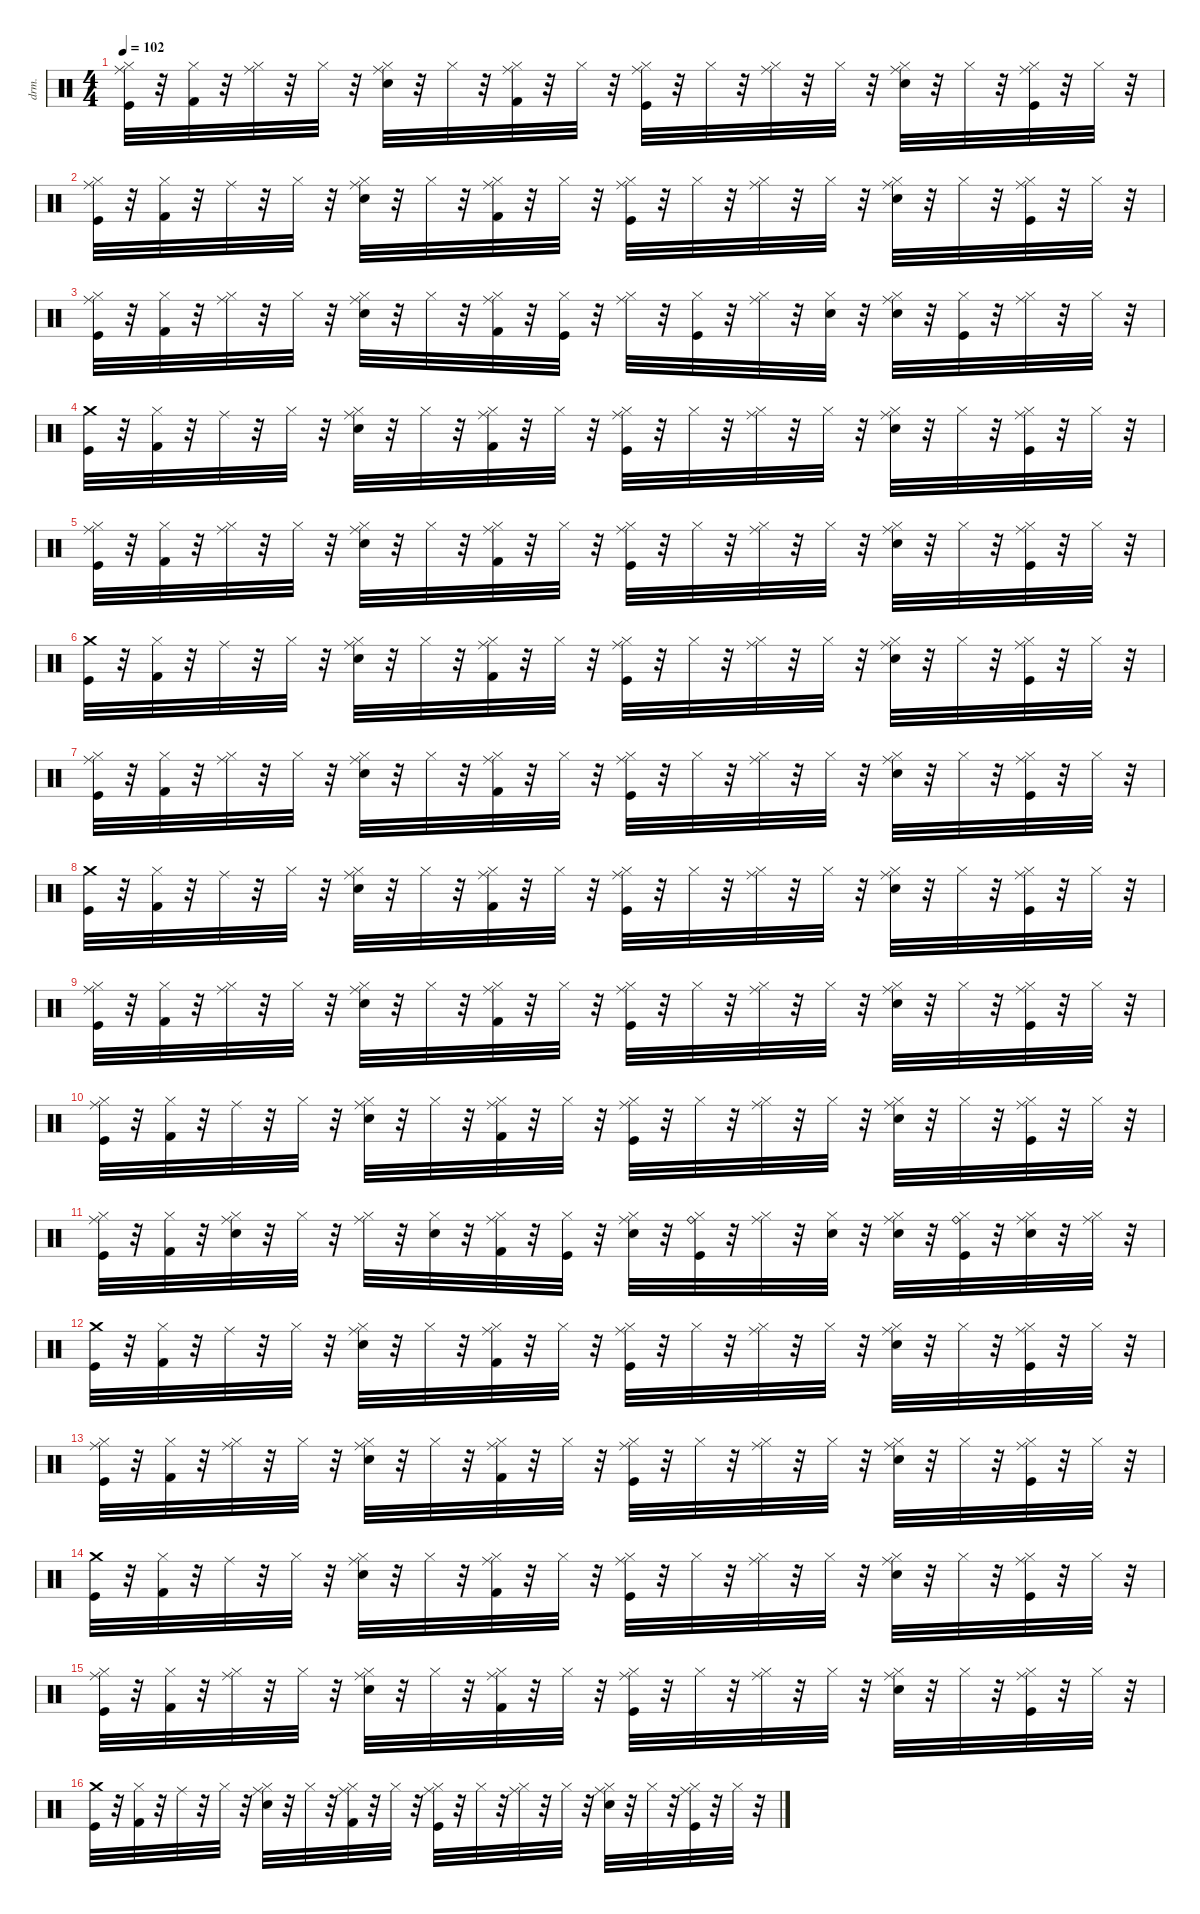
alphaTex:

\defaultSystemsLayout 4
\hideDynamics
\bracketExtendMode nobrackets
\otherSystemsTrackNameOrientation horizontal
\track ("Nick Mason / Gary Wallis" "drm.") {instrument percussion}
\staff {score}
\articulation defaults
\ts (4 4)
\tempo 102
\clef neutral
\ks c
("Kick (hit)" "Hi-Hat (closed)" "Ride (middle)").32{dy fff beam Down} r.32{beam Down} ("Hi-Hat (closed)" "Kick (hit) 2").32{dy pp beam Down} r.32{beam Down} ("Hi-Hat (closed)" "Ride (middle)").32{dy ppp beam Down} r.32{beam Down} "Hi-Hat (closed)".32{dy p beam Down} r.32{beam Down} ("Snare (hit) 2" "Hi-Hat (closed)" "Ride (middle)").32{dy ff beam Down} r.32{beam Down} "Hi-Hat (closed)".32{dy ppp beam Down} r.32{beam Down} ("Kick (hit) 2" "Hi-Hat (closed)" "Ride (middle)").32{dy f beam Down} r.32{beam Down} "Hi-Hat (closed)".32{dy ppp beam Down} r.32{beam Down} ("Kick (hit)" "Hi-Hat (closed)" "Ride (middle)").32{dy fff beam Down} r.32{beam Down} "Hi-Hat (closed)".32{dy pp beam Down} r.32{beam Down} ("Hi-Hat (closed)" "Ride (middle)").32{dy ppp beam Down} r.32{beam Down} "Hi-Hat (closed)".32{dy p beam Down} r.32{beam Down} ("Snare (hit) 2" "Hi-Hat (closed)" "Ride (middle)").32{dy ff beam Down} r.32{beam Down} "Hi-Hat (closed)".32{dy ppp beam Down} r.32{beam Down} ("Kick (hit)" "Hi-Hat (closed)" "Ride (middle)").32{dy f beam Down} r.32{beam Down} "Hi-Hat (closed)".32{dy p beam Down} r.32{beam Down} |
("Kick (hit)" "Hi-Hat (closed)" "Ride (middle)").32{dy fff beam Down} r.32{beam Down} ("Hi-Hat (closed)" "Kick (hit) 2").32{dy mp beam Down} r.32{beam Down} "Ride (middle)".32{dy p beam Down} r.32{beam Down} "Hi-Hat (closed)".32{dy pp beam Down} r.32{beam Down} ("Snare (hit) 2" "Hi-Hat (closed)" "Ride (middle)").32{dy ff beam Down} r.32{beam Down} "Hi-Hat (closed)".32{dy pp beam Down} r.32{beam Down} ("Kick (hit) 2" "Hi-Hat (closed)" "Ride (middle)").32{dy f beam Down} r.32{beam Down} "Hi-Hat (closed)".32{dy ppp beam Down} r.32{beam Down} ("Kick (hit)" "Hi-Hat (closed)" "Ride (middle)").32{dy fff beam Down} r.32{beam Down} "Hi-Hat (closed)".32{dy ppp beam Down} r.32{beam Down} ("Hi-Hat (closed)" "Ride (middle)").32{dy pp beam Down} r.32{beam Down} "Hi-Hat (closed)".32{beam Down} r.32{beam Down} ("Snare (hit) 2" "Hi-Hat (closed)" "Ride (middle)").32{dy ff beam Down} r.32{beam Down} "Hi-Hat (closed)".32{dy ppp beam Down} r.32{beam Down} ("Kick (hit)" "Hi-Hat (closed)" "Ride (middle)").32{dy f beam Down} r.32{beam Down} "Hi-Hat (closed)".32{dy mp beam Down} r.32{beam Down} |
("Kick (hit)" "Hi-Hat (closed)" "Ride (middle)").32{dy fff beam Down} r.32{beam Down} ("Hi-Hat (closed)" "Kick (hit) 2").32{dy pp beam Down} r.32{beam Down} ("Hi-Hat (closed)" "Ride (middle)").32{dy ppp beam Down} r.32{beam Down} "Hi-Hat (closed)".32{dy p beam Down} r.32{beam Down} ("Snare (hit) 2" "Hi-Hat (closed)" "Ride (middle)").32{dy ff beam Down} r.32{beam Down} "Hi-Hat (closed)".32{dy ppp beam Down} r.32{beam Down} ("Kick (hit) 2" "Hi-Hat (closed)" "Ride (middle)").32{dy f beam Down} r.32{beam Down} ("Kick (hit)" "Hi-Hat (closed)").32{dy fff beam Down} r.32{beam Down} ("Hi-Hat (closed)" "Ride (middle)").32{dy mf beam Down} r.32{beam Down} ("Kick (hit)" "Hi-Hat (closed)").32{beam Down} r.32{beam Down} ("Hi-Hat (closed)" "Ride (middle)").32{dy ppp beam Down} r.32{beam Down} ("Snare (hit) 2" "Hi-Hat (closed)").32{dy f beam Down} r.32{beam Down} ("Snare (hit) 2" "Hi-Hat (closed)" "Ride (middle)").32{dy ff beam Down} r.32{beam Down} ("Kick (hit)" "Hi-Hat (closed)").32{dy mf beam Down} r.32{beam Down} ("Hi-Hat (closed)" "Ride (middle)").32{dy pp beam Down} r.32{beam Down} "Hi-Hat (closed)".32{dy p beam Down} r.32{beam Down} |
("Kick (hit)" "Crash medium (hit)").32{dy fff beam Down} r.32{beam Down} ("Hi-Hat (closed)" "Kick (hit) 2").32{dy mp beam Down} r.32{beam Down} "Ride (middle)".32{dy p beam Down} r.32{beam Down} "Hi-Hat (closed)".32{dy pp beam Down} r.32{beam Down} ("Snare (hit) 2" "Hi-Hat (closed)" "Ride (middle)").32{dy ff beam Down} r.32{beam Down} "Hi-Hat (closed)".32{dy pp beam Down} r.32{beam Down} ("Kick (hit) 2" "Hi-Hat (closed)" "Ride (middle)").32{dy f beam Down} r.32{beam Down} "Hi-Hat (closed)".32{dy ppp beam Down} r.32{beam Down} ("Kick (hit)" "Hi-Hat (closed)" "Ride (middle)").32{dy fff beam Down} r.32{beam Down} "Hi-Hat (closed)".32{dy ppp beam Down} r.32{beam Down} ("Hi-Hat (closed)" "Ride (middle)").32{dy pp beam Down} r.32{beam Down} "Hi-Hat (closed)".32{beam Down} r.32{beam Down} ("Snare (hit) 2" "Hi-Hat (closed)" "Ride (middle)").32{dy ff beam Down} r.32{beam Down} "Hi-Hat (closed)".32{dy ppp beam Down} r.32{beam Down} ("Kick (hit)" "Hi-Hat (closed)" "Ride (middle)").32{dy f beam Down} r.32{beam Down} "Hi-Hat (closed)".32{dy mp beam Down} r.32{beam Down} |
("Kick (hit)" "Hi-Hat (closed)" "Ride (middle)").32{dy fff beam Down} r.32{beam Down} ("Hi-Hat (closed)" "Kick (hit) 2").32{dy pp beam Down} r.32{beam Down} ("Hi-Hat (closed)" "Ride (middle)").32{dy ppp beam Down} r.32{beam Down} "Hi-Hat (closed)".32{dy p beam Down} r.32{beam Down} ("Snare (hit) 2" "Hi-Hat (closed)" "Ride (middle)").32{dy ff beam Down} r.32{beam Down} "Hi-Hat (closed)".32{dy ppp beam Down} r.32{beam Down} ("Kick (hit) 2" "Hi-Hat (closed)" "Ride (middle)").32{dy f beam Down} r.32{beam Down} "Hi-Hat (closed)".32{dy ppp beam Down} r.32{beam Down} ("Kick (hit)" "Hi-Hat (closed)" "Ride (middle)").32{dy fff beam Down} r.32{beam Down} "Hi-Hat (closed)".32{dy pp beam Down} r.32{beam Down} ("Hi-Hat (closed)" "Ride (middle)").32{dy ppp beam Down} r.32{beam Down} "Hi-Hat (closed)".32{dy p beam Down} r.32{beam Down} ("Snare (hit) 2" "Hi-Hat (closed)" "Ride (middle)").32{dy ff beam Down} r.32{beam Down} "Hi-Hat (closed)".32{dy ppp beam Down} r.32{beam Down} ("Kick (hit)" "Hi-Hat (closed)" "Ride (middle)").32{dy f beam Down} r.32{beam Down} "Hi-Hat (closed)".32{dy p beam Down} r.32{beam Down} |
("Kick (hit)" "Crash medium (hit)").32{dy fff beam Down} r.32{beam Down} ("Hi-Hat (closed)" "Kick (hit) 2").32{dy mp beam Down} r.32{beam Down} "Ride (middle)".32{dy p beam Down} r.32{beam Down} "Hi-Hat (closed)".32{dy pp beam Down} r.32{beam Down} ("Snare (hit) 2" "Hi-Hat (closed)" "Ride (middle)").32{dy ff beam Down} r.32{beam Down} "Hi-Hat (closed)".32{dy pp beam Down} r.32{beam Down} ("Kick (hit) 2" "Hi-Hat (closed)" "Ride (middle)").32{dy f beam Down} r.32{beam Down} "Hi-Hat (closed)".32{dy ppp beam Down} r.32{beam Down} ("Kick (hit)" "Hi-Hat (closed)" "Ride (middle)").32{dy fff beam Down} r.32{beam Down} "Hi-Hat (closed)".32{dy ppp beam Down} r.32{beam Down} ("Hi-Hat (closed)" "Ride (middle)").32{dy pp beam Down} r.32{beam Down} "Hi-Hat (closed)".32{beam Down} r.32{beam Down} ("Snare (hit) 2" "Hi-Hat (closed)" "Ride (middle)").32{dy ff beam Down} r.32{beam Down} "Hi-Hat (closed)".32{dy ppp beam Down} r.32{beam Down} ("Kick (hit)" "Hi-Hat (closed)" "Ride (middle)").32{dy f beam Down} r.32{beam Down} "Hi-Hat (closed)".32{dy mp beam Down} r.32{beam Down} |
("Kick (hit)" "Hi-Hat (closed)" "Ride (middle)").32{dy fff beam Down} r.32{beam Down} ("Hi-Hat (closed)" "Kick (hit) 2").32{dy pp beam Down} r.32{beam Down} ("Hi-Hat (closed)" "Ride (middle)").32{dy ppp beam Down} r.32{beam Down} "Hi-Hat (closed)".32{dy p beam Down} r.32{beam Down} ("Snare (hit) 2" "Hi-Hat (closed)" "Ride (middle)").32{dy ff beam Down} r.32{beam Down} "Hi-Hat (closed)".32{dy ppp beam Down} r.32{beam Down} ("Kick (hit) 2" "Hi-Hat (closed)" "Ride (middle)").32{dy f beam Down} r.32{beam Down} "Hi-Hat (closed)".32{dy ppp beam Down} r.32{beam Down} ("Kick (hit)" "Hi-Hat (closed)" "Ride (middle)").32{dy fff beam Down} r.32{beam Down} "Hi-Hat (closed)".32{dy pp beam Down} r.32{beam Down} ("Hi-Hat (closed)" "Ride (middle)").32{dy ppp beam Down} r.32{beam Down} "Hi-Hat (closed)".32{dy p beam Down} r.32{beam Down} ("Snare (hit) 2" "Hi-Hat (closed)" "Ride (middle)").32{dy ff beam Down} r.32{beam Down} "Hi-Hat (closed)".32{dy ppp beam Down} r.32{beam Down} ("Kick (hit)" "Hi-Hat (closed)" "Ride (middle)").32{dy f beam Down} r.32{beam Down} "Hi-Hat (closed)".32{dy p beam Down} r.32{beam Down} |
("Kick (hit)" "Crash medium (hit)").32{dy fff beam Down} r.32{beam Down} ("Hi-Hat (closed)" "Kick (hit) 2").32{dy mp beam Down} r.32{beam Down} "Ride (middle)".32{beam Down} r.32{beam Down} "Hi-Hat (closed)".32{dy pp beam Down} r.32{beam Down} ("Snare (hit) 2" "Hi-Hat (closed)" "Ride (middle)").32{dy ff beam Down} r.32{beam Down} "Hi-Hat (closed)".32{dy pp beam Down} r.32{beam Down} ("Kick (hit) 2" "Hi-Hat (closed)" "Ride (middle)").32{dy f beam Down} r.32{beam Down} "Hi-Hat (closed)".32{dy ppp beam Down} r.32{beam Down} ("Kick (hit)" "Hi-Hat (closed)" "Ride (middle)").32{dy fff beam Down} r.32{beam Down} "Hi-Hat (closed)".32{dy ppp beam Down} r.32{beam Down} ("Hi-Hat (closed)" "Ride (middle)").32{dy pp beam Down} r.32{beam Down} "Hi-Hat (closed)".32{beam Down} r.32{beam Down} ("Snare (hit) 2" "Hi-Hat (closed)" "Ride (middle)").32{dy ff beam Down} r.32{beam Down} "Hi-Hat (closed)".32{dy ppp beam Down} r.32{beam Down} ("Kick (hit)" "Hi-Hat (closed)" "Ride (middle)").32{dy f beam Down} r.32{beam Down} "Hi-Hat (closed)".32{dy mp beam Down} r.32{beam Down} |
("Kick (hit)" "Hi-Hat (closed)" "Ride (middle)").32{dy fff beam Down} r.32{beam Down} ("Hi-Hat (closed)" "Kick (hit) 2").32{dy pp beam Down} r.32{beam Down} ("Hi-Hat (closed)" "Ride (middle)").32{dy ppp beam Down} r.32{beam Down} "Hi-Hat (closed)".32{dy p beam Down} r.32{beam Down} ("Snare (hit) 2" "Hi-Hat (closed)" "Ride (middle)").32{dy ff beam Down} r.32{beam Down} "Hi-Hat (closed)".32{dy ppp beam Down} r.32{beam Down} ("Kick (hit) 2" "Hi-Hat (closed)" "Ride (middle)").32{dy f beam Down} r.32{beam Down} "Hi-Hat (closed)".32{dy ppp beam Down} r.32{beam Down} ("Kick (hit)" "Hi-Hat (closed)" "Ride (middle)").32{dy fff beam Down} r.32{beam Down} "Hi-Hat (closed)".32{dy pp beam Down} r.32{beam Down} ("Hi-Hat (closed)" "Ride (middle)").32{dy ppp beam Down} r.32{beam Down} "Hi-Hat (closed)".32{dy p beam Down} r.32{beam Down} ("Snare (hit) 2" "Hi-Hat (closed)" "Ride (middle)").32{dy ff beam Down} r.32{beam Down} "Hi-Hat (closed)".32{dy ppp beam Down} r.32{beam Down} ("Kick (hit)" "Hi-Hat (closed)" "Ride (middle)").32{dy f beam Down} r.32{beam Down} "Hi-Hat (closed)".32{dy p beam Down} r.32{beam Down} |
("Kick (hit)" "Hi-Hat (closed)" "Ride (middle)").32{dy fff beam Down} r.32{beam Down} ("Hi-Hat (closed)" "Kick (hit) 2").32{dy mp beam Down} r.32{beam Down} "Ride (middle)".32{beam Down} r.32{beam Down} "Hi-Hat (closed)".32{dy pp beam Down} r.32{beam Down} ("Snare (hit) 2" "Hi-Hat (closed)" "Ride (middle)").32{dy ff beam Down} r.32{beam Down} "Hi-Hat (closed)".32{dy pp beam Down} r.32{beam Down} ("Kick (hit) 2" "Hi-Hat (closed)" "Ride (middle)").32{dy f beam Down} r.32{beam Down} "Hi-Hat (closed)".32{dy ppp beam Down} r.32{beam Down} ("Kick (hit)" "Hi-Hat (closed)" "Ride (middle)").32{dy fff beam Down} r.32{beam Down} "Hi-Hat (closed)".32{dy ppp beam Down} r.32{beam Down} ("Hi-Hat (closed)" "Ride (middle)").32{dy pp beam Down} r.32{beam Down} "Hi-Hat (closed)".32{beam Down} r.32{beam Down} ("Snare (hit) 2" "Hi-Hat (closed)" "Ride (middle)").32{dy ff beam Down} r.32{beam Down} "Hi-Hat (closed)".32{dy ppp beam Down} r.32{beam Down} ("Kick (hit)" "Hi-Hat (closed)" "Ride (middle)").32{dy f beam Down} r.32{beam Down} "Hi-Hat (closed)".32{dy mp beam Down} r.32{beam Down} |
("Kick (hit)" "Hi-Hat (closed)" "Ride (middle)").32{dy fff beam Down} r.32{beam Down} ("Hi-Hat (closed)" "Kick (hit) 2").32{dy pp beam Down} r.32{beam Down} ("Snare (hit) 2" "Hi-Hat (closed)" "Ride (middle)").32{dy ff beam Down} r.32{beam Down} "Hi-Hat (closed)".32{dy p beam Down} r.32{beam Down} ("Hi-Hat (closed)" "Ride (middle)").32{dy mf beam Down} r.32{beam Down} ("Snare (hit) 2" "Hi-Hat (closed)").32{dy ff beam Down} r.32{beam Down} ("Kick (hit) 2" "Hi-Hat (closed)" "Ride (middle)").32{dy f beam Down} r.32{beam Down} ("Kick (hit)" "Hi-Hat (closed)").32{dy fff beam Down} r.32{beam Down} ("Snare (hit) 2" "Hi-Hat (closed)" "Ride (middle)").32{dy ff beam Down} r.32{beam Down} ("Kick (hit)" "Hi-Hat (closed)" "Ride (bell)").32{dy mf beam Down} r.32{beam Down} ("Hi-Hat (closed)" "Ride (middle)").32{dy ppp beam Down} r.32{beam Down} ("Snare (hit) 2" "Hi-Hat (closed)").32{dy f beam Down} r.32{beam Down} ("Snare (hit) 2" "Hi-Hat (closed)" "Ride (middle)").32{dy ff beam Down} r.32{beam Down} ("Kick (hit)" "Hi-Hat (closed)" "Ride (bell)").32{dy mf beam Down} r.32{beam Down} ("Snare (hit) 2" "Hi-Hat (closed)" "Ride (middle)").32{dy f beam Down} r.32{beam Down} ("Hi-Hat (closed)" "Ride (middle)").32{dy p beam Down} r.32{beam Down} |
("Kick (hit)" "Crash medium (hit)").32{dy fff beam Down} r.32{beam Down} ("Hi-Hat (closed)" "Kick (hit) 2").32{dy mp beam Down} r.32{beam Down} "Ride (middle)".32{beam Down} r.32{beam Down} "Hi-Hat (closed)".32{dy pp beam Down} r.32{beam Down} ("Snare (hit) 2" "Hi-Hat (closed)" "Ride (middle)").32{dy ff beam Down} r.32{beam Down} "Hi-Hat (closed)".32{dy pp beam Down} r.32{beam Down} ("Kick (hit) 2" "Hi-Hat (closed)" "Ride (middle)").32{dy f beam Down} r.32{beam Down} "Hi-Hat (closed)".32{dy ppp beam Down} r.32{beam Down} ("Kick (hit)" "Hi-Hat (closed)" "Ride (middle)").32{dy fff beam Down} r.32{beam Down} "Hi-Hat (closed)".32{dy ppp beam Down} r.32{beam Down} ("Hi-Hat (closed)" "Ride (middle)").32{dy pp beam Down} r.32{beam Down} "Hi-Hat (closed)".32{beam Down} r.32{beam Down} ("Snare (hit) 2" "Hi-Hat (closed)" "Ride (middle)").32{dy ff beam Down} r.32{beam Down} "Hi-Hat (closed)".32{dy ppp beam Down} r.32{beam Down} ("Kick (hit)" "Hi-Hat (closed)" "Ride (middle)").32{dy f beam Down} r.32{beam Down} "Hi-Hat (closed)".32{dy mp beam Down} r.32{beam Down} |
("Kick (hit)" "Hi-Hat (closed)" "Ride (middle)").32{dy fff beam Down} r.32{beam Down} ("Hi-Hat (closed)" "Kick (hit) 2").32{dy pp beam Down} r.32{beam Down} ("Hi-Hat (closed)" "Ride (middle)").32{dy ppp beam Down} r.32{beam Down} "Hi-Hat (closed)".32{dy p beam Down} r.32{beam Down} ("Snare (hit) 2" "Hi-Hat (closed)" "Ride (middle)").32{dy ff beam Down} r.32{beam Down} "Hi-Hat (closed)".32{dy ppp beam Down} r.32{beam Down} ("Kick (hit) 2" "Hi-Hat (closed)" "Ride (middle)").32{dy f beam Down} r.32{beam Down} "Hi-Hat (closed)".32{dy ppp beam Down} r.32{beam Down} ("Kick (hit)" "Hi-Hat (closed)" "Ride (middle)").32{dy fff beam Down} r.32{beam Down} "Hi-Hat (closed)".32{dy pp beam Down} r.32{beam Down} ("Hi-Hat (closed)" "Ride (middle)").32{dy ppp beam Down} r.32{beam Down} "Hi-Hat (closed)".32{dy p beam Down} r.32{beam Down} ("Snare (hit) 2" "Hi-Hat (closed)" "Ride (middle)").32{dy ff beam Down} r.32{beam Down} "Hi-Hat (closed)".32{dy ppp beam Down} r.32{beam Down} ("Kick (hit)" "Hi-Hat (closed)" "Ride (middle)").32{dy f beam Down} r.32{beam Down} "Hi-Hat (closed)".32{dy p beam Down} r.32{beam Down} |
("Kick (hit)" "Crash medium (hit)").32{dy fff beam Down} r.32{beam Down} ("Hi-Hat (closed)" "Kick (hit) 2").32{dy mp beam Down} r.32{beam Down} "Ride (middle)".32{beam Down} r.32{beam Down} "Hi-Hat (closed)".32{dy pp beam Down} r.32{beam Down} ("Snare (hit) 2" "Hi-Hat (closed)" "Ride (middle)").32{dy ff beam Down} r.32{beam Down} "Hi-Hat (closed)".32{dy pp beam Down} r.32{beam Down} ("Kick (hit) 2" "Hi-Hat (closed)" "Ride (middle)").32{dy f beam Down} r.32{beam Down} "Hi-Hat (closed)".32{dy ppp beam Down} r.32{beam Down} ("Kick (hit)" "Hi-Hat (closed)" "Ride (middle)").32{dy fff beam Down} r.32{beam Down} "Hi-Hat (closed)".32{dy ppp beam Down} r.32{beam Down} ("Hi-Hat (closed)" "Ride (middle)").32{dy pp beam Down} r.32{beam Down} "Hi-Hat (closed)".32{beam Down} r.32{beam Down} ("Snare (hit) 2" "Hi-Hat (closed)" "Ride (middle)").32{dy ff beam Down} r.32{beam Down} "Hi-Hat (closed)".32{dy ppp beam Down} r.32{beam Down} ("Kick (hit)" "Hi-Hat (closed)" "Ride (middle)").32{dy f beam Down} r.32{beam Down} "Hi-Hat (closed)".32{dy mp beam Down} r.32{beam Down} |
("Kick (hit)" "Hi-Hat (closed)" "Ride (middle)").32{dy fff beam Down} r.32{beam Down} ("Hi-Hat (closed)" "Kick (hit) 2").32{dy pp beam Down} r.32{beam Down} ("Hi-Hat (closed)" "Ride (middle)").32{dy ppp beam Down} r.32{beam Down} "Hi-Hat (closed)".32{dy p beam Down} r.32{beam Down} ("Snare (hit) 2" "Hi-Hat (closed)" "Ride (middle)").32{dy ff beam Down} r.32{beam Down} "Hi-Hat (closed)".32{dy ppp beam Down} r.32{beam Down} ("Kick (hit) 2" "Hi-Hat (closed)" "Ride (middle)").32{dy f beam Down} r.32{beam Down} "Hi-Hat (closed)".32{dy ppp beam Down} r.32{beam Down} ("Kick (hit)" "Hi-Hat (closed)" "Ride (middle)").32{dy fff beam Down} r.32{beam Down} "Hi-Hat (closed)".32{dy pp beam Down} r.32{beam Down} ("Hi-Hat (closed)" "Ride (middle)").32{dy ppp beam Down} r.32{beam Down} "Hi-Hat (closed)".32{dy p beam Down} r.32{beam Down} ("Snare (hit) 2" "Hi-Hat (closed)" "Ride (middle)").32{dy ff beam Down} r.32{beam Down} "Hi-Hat (closed)".32{dy ppp beam Down} r.32{beam Down} ("Kick (hit)" "Hi-Hat (closed)" "Ride (middle)").32{dy f beam Down} r.32{beam Down} "Hi-Hat (closed)".32{dy p beam Down} r.32{beam Down} |
("Kick (hit)" "Crash medium (hit)").32{dy fff beam Down} r.32{beam Down} ("Hi-Hat (closed)" "Kick (hit) 2").32{dy mp beam Down} r.32{beam Down} "Ride (middle)".32{dy p beam Down} r.32{beam Down} "Hi-Hat (closed)".32{dy pp beam Down} r.32{beam Down} ("Snare (hit) 2" "Hi-Hat (closed)" "Ride (middle)").32{dy ff beam Down} r.32{beam Down} "Hi-Hat (closed)".32{dy pp beam Down} r.32{beam Down} ("Kick (hit) 2" "Hi-Hat (closed)" "Ride (middle)").32{dy f beam Down} r.32{beam Down} "Hi-Hat (closed)".32{dy ppp beam Down} r.32{beam Down} ("Kick (hit)" "Hi-Hat (closed)" "Ride (middle)").32{dy fff beam Down} r.32{beam Down} "Hi-Hat (closed)".32{dy ppp beam Down} r.32{beam Down} ("Hi-Hat (closed)" "Ride (middle)").32{dy pp beam Down} r.32{beam Down} "Hi-Hat (closed)".32{beam Down} r.32{beam Down} ("Snare (hit) 2" "Hi-Hat (closed)" "Ride (middle)").32{dy ff beam Down} r.32{beam Down} "Hi-Hat (closed)".32{dy ppp beam Down} r.32{beam Down} ("Kick (hit)" "Hi-Hat (closed)" "Ride (middle)").32{dy f beam Down} r.32{beam Down} "Hi-Hat (closed)".32{dy mp beam Down} r.32{beam Down}
